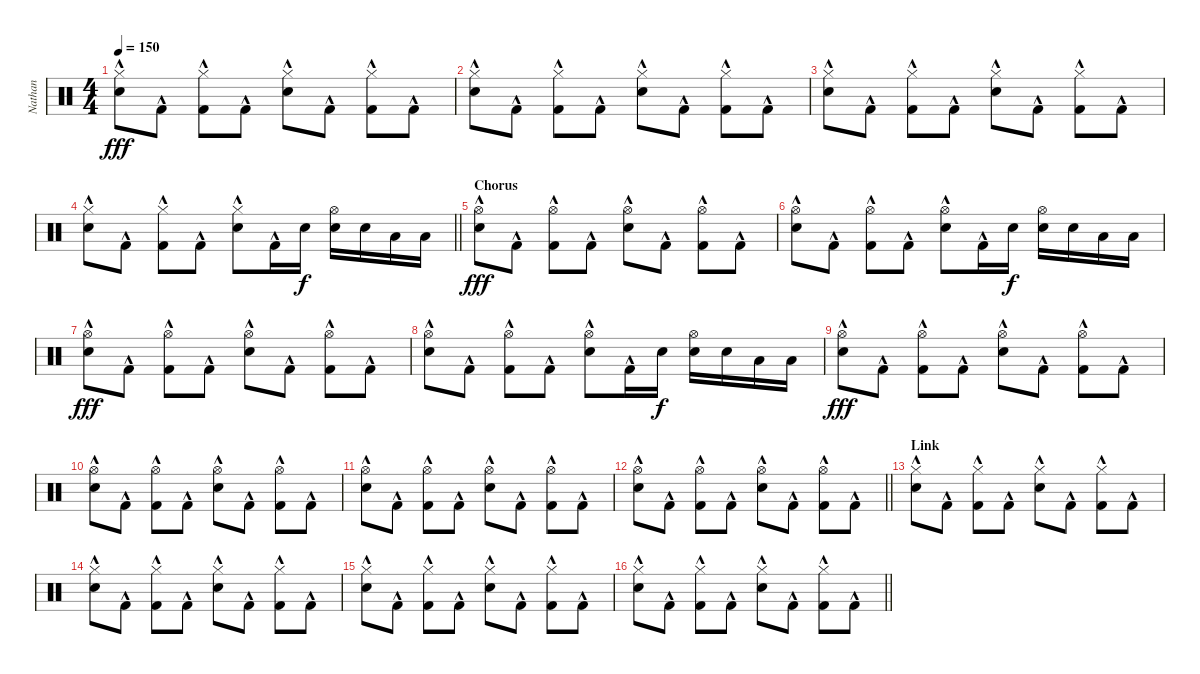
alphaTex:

\track ("Nathan" "Nathan") {instrument percussion}
\staff {score}
\articulation defaults
\ts (4 4)
\tempo 150
\clef neutral
\ks c
("Hi-Hat (closed)" "Snare (hit) 2"{hac}).8{dy fff} "Kick (hit) 2"{hac}.8 ("Hi-Hat (closed)" "Kick (hit) 2"{hac}).8 "Kick (hit) 2"{hac}.8 ("Hi-Hat (closed)" "Snare (hit) 2"{hac}).8 "Kick (hit) 2"{hac}.8 ("Hi-Hat (closed)" "Kick (hit) 2"{hac}).8 "Kick (hit) 2"{hac}.8 |
("Hi-Hat (closed)" "Snare (hit) 2"{hac}).8 "Kick (hit) 2"{hac}.8 ("Hi-Hat (closed)" "Kick (hit) 2"{hac}).8 "Kick (hit) 2"{hac}.8 ("Hi-Hat (closed)" "Snare (hit) 2"{hac}).8 "Kick (hit) 2"{hac}.8 ("Hi-Hat (closed)" "Kick (hit) 2"{hac}).8 "Kick (hit) 2"{hac}.8 |
("Hi-Hat (closed)" "Snare (hit) 2"{hac}).8 "Kick (hit) 2"{hac}.8 ("Hi-Hat (closed)" "Kick (hit) 2"{hac}).8 "Kick (hit) 2"{hac}.8 ("Hi-Hat (closed)" "Snare (hit) 2"{hac}).8 "Kick (hit) 2"{hac}.8 ("Hi-Hat (closed)" "Kick (hit) 2"{hac}).8 "Kick (hit) 2"{hac}.8 |
\barLineRight lightlight
("Hi-Hat (closed)" "Snare (hit) 2"{hac}).8 "Kick (hit) 2"{hac}.8 ("Hi-Hat (closed)" "Kick (hit) 2"{hac}).8 "Kick (hit) 2"{hac}.8 ("Hi-Hat (closed)" "Snare (hit) 2"{hac}).8 "Kick (hit) 2"{hac}.16 "Snare (hit) 2".16{dy f} ("Hi-Hat (open)" "Snare (hit) 2").16 "Snare (hit) 2".16 "Low Tom (hit)".16 "Low Tom (hit)".16 |
\section ("" "Chorus")
("Hi-Hat (open)" "Snare (hit) 2"{hac}).8{dy fff} "Kick (hit) 2"{hac}.8 ("Hi-Hat (open)" "Kick (hit) 2"{hac}).8 "Kick (hit) 2"{hac}.8 ("Hi-Hat (open)" "Snare (hit) 2"{hac}).8 "Kick (hit) 2"{hac}.8 ("Hi-Hat (open)" "Kick (hit) 2"{hac}).8 "Kick (hit) 2"{hac}.8 |
("Hi-Hat (open)" "Snare (hit) 2"{hac}).8 "Kick (hit) 2"{hac}.8 ("Hi-Hat (open)" "Kick (hit) 2"{hac}).8 "Kick (hit) 2"{hac}.8 ("Hi-Hat (open)" "Snare (hit) 2"{hac}).8 "Kick (hit) 2"{hac}.16 "Snare (hit) 2".16{dy f} ("Hi-Hat (open)" "Snare (hit) 2").16 "Snare (hit) 2".16 "Low Tom (hit)".16 "Low Tom (hit)".16 |
("Hi-Hat (open)" "Snare (hit) 2"{hac}).8{dy fff} "Kick (hit) 2"{hac}.8 ("Hi-Hat (open)" "Kick (hit) 2"{hac}).8 "Kick (hit) 2"{hac}.8 ("Hi-Hat (open)" "Snare (hit) 2"{hac}).8 "Kick (hit) 2"{hac}.8 ("Hi-Hat (open)" "Kick (hit) 2"{hac}).8 "Kick (hit) 2"{hac}.8 |
("Hi-Hat (open)" "Snare (hit) 2"{hac}).8 "Kick (hit) 2"{hac}.8 ("Hi-Hat (open)" "Kick (hit) 2"{hac}).8 "Kick (hit) 2"{hac}.8 ("Hi-Hat (open)" "Snare (hit) 2"{hac}).8 "Kick (hit) 2"{hac}.16 "Snare (hit) 2".16{dy f} ("Hi-Hat (open)" "Snare (hit) 2").16 "Snare (hit) 2".16 "Low Tom (hit)".16 "Low Tom (hit)".16 |
("Hi-Hat (open)" "Snare (hit) 2"{hac}).8{dy fff} "Kick (hit) 2"{hac}.8 ("Hi-Hat (open)" "Kick (hit) 2"{hac}).8 "Kick (hit) 2"{hac}.8 ("Hi-Hat (open)" "Snare (hit) 2"{hac}).8 "Kick (hit) 2"{hac}.8 ("Hi-Hat (open)" "Kick (hit) 2"{hac}).8 "Kick (hit) 2"{hac}.8 |
("Hi-Hat (open)" "Snare (hit) 2"{hac}).8 "Kick (hit) 2"{hac}.8 ("Hi-Hat (open)" "Kick (hit) 2"{hac}).8 "Kick (hit) 2"{hac}.8 ("Hi-Hat (open)" "Snare (hit) 2"{hac}).8 "Kick (hit) 2"{hac}.8 ("Hi-Hat (open)" "Kick (hit) 2"{hac}).8 "Kick (hit) 2"{hac}.8 |
("Hi-Hat (open)" "Snare (hit) 2"{hac}).8 "Kick (hit) 2"{hac}.8 ("Hi-Hat (open)" "Kick (hit) 2"{hac}).8 "Kick (hit) 2"{hac}.8 ("Hi-Hat (open)" "Snare (hit) 2"{hac}).8 "Kick (hit) 2"{hac}.8 ("Hi-Hat (open)" "Kick (hit) 2"{hac}).8 "Kick (hit) 2"{hac}.8 |
\barLineRight lightlight
("Hi-Hat (open)" "Snare (hit) 2"{hac}).8 "Kick (hit) 2"{hac}.8 ("Hi-Hat (open)" "Kick (hit) 2"{hac}).8 "Kick (hit) 2"{hac}.8 ("Hi-Hat (open)" "Snare (hit) 2"{hac}).8 "Kick (hit) 2"{hac}.8 ("Hi-Hat (open)" "Kick (hit) 2"{hac}).8 "Kick (hit) 2"{hac}.8 |
\section ("" "Link")
("Hi-Hat (closed)" "Snare (hit) 2"{hac}).8 "Kick (hit) 2"{hac}.8 ("Hi-Hat (closed)" "Kick (hit) 2"{hac}).8 "Kick (hit) 2"{hac}.8 ("Hi-Hat (closed)" "Snare (hit) 2"{hac}).8 "Kick (hit) 2"{hac}.8 ("Hi-Hat (closed)" "Kick (hit) 2"{hac}).8 "Kick (hit) 2"{hac}.8 |
("Hi-Hat (closed)" "Snare (hit) 2"{hac}).8 "Kick (hit) 2"{hac}.8 ("Hi-Hat (closed)" "Kick (hit) 2"{hac}).8 "Kick (hit) 2"{hac}.8 ("Hi-Hat (closed)" "Snare (hit) 2"{hac}).8 "Kick (hit) 2"{hac}.8 ("Hi-Hat (closed)" "Kick (hit) 2"{hac}).8 "Kick (hit) 2"{hac}.8 |
("Hi-Hat (closed)" "Snare (hit) 2"{hac}).8 "Kick (hit) 2"{hac}.8 ("Hi-Hat (closed)" "Kick (hit) 2"{hac}).8 "Kick (hit) 2"{hac}.8 ("Hi-Hat (closed)" "Snare (hit) 2"{hac}).8 "Kick (hit) 2"{hac}.8 ("Hi-Hat (closed)" "Kick (hit) 2"{hac}).8 "Kick (hit) 2"{hac}.8 |
\barLineRight lightlight
("Hi-Hat (closed)" "Snare (hit) 2"{hac}).8 "Kick (hit) 2"{hac}.8 ("Hi-Hat (closed)" "Kick (hit) 2"{hac}).8 "Kick (hit) 2"{hac}.8 ("Hi-Hat (closed)" "Snare (hit) 2"{hac}).8 "Kick (hit) 2"{hac}.8 ("Hi-Hat (closed)" "Kick (hit) 2"{hac}).8 "Kick (hit) 2"{hac}.8
